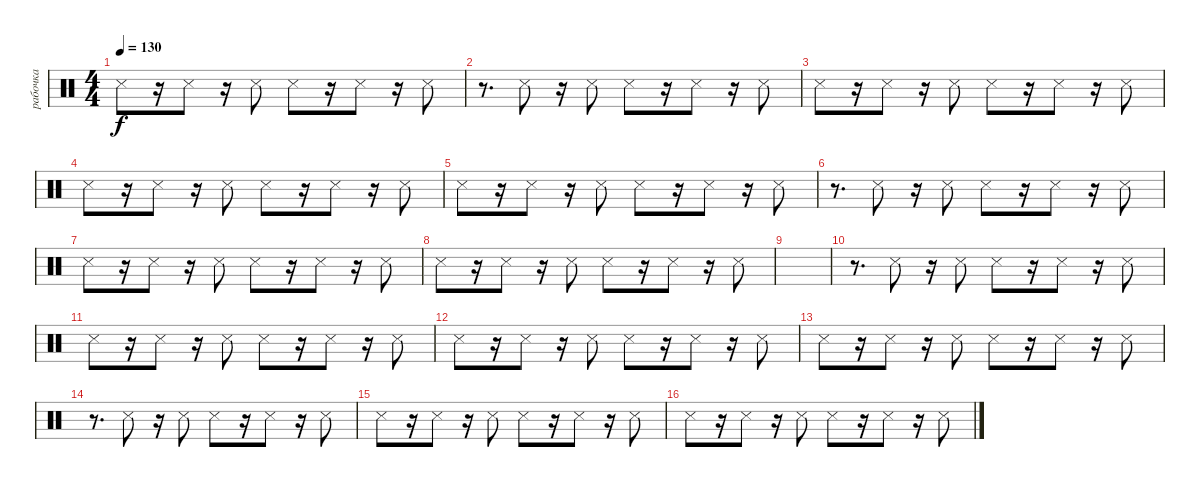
\track ("рабочка" "рабочка") {instrument percussion}
\staff {score}
\articulation defaults
\ts (4 4)
\tempo 130
\clef neutral
\ks c "Snare (side stick) 3".8{dy f}
r.16 "Snare (side stick) 3".8 r.16 "Snare (side stick) 3".8 "Snare (side stick) 3".8 r.16 "Snare (side stick) 3".8 r.16 "Snare (side stick) 3".8 |
r.8{d} "Snare (side stick) 3".8 r.16 "Snare (side stick) 3".8 "Snare (side stick) 3".8 r.16 "Snare (side stick) 3".8 r.16 "Snare (side stick) 3".8 |
"Snare (side stick) 3".8 r.16 "Snare (side stick) 3".8 r.16 "Snare (side stick) 3".8 "Snare (side stick) 3".8 r.16 "Snare (side stick) 3".8 r.16 "Snare (side stick) 3".8 |
"Snare (side stick) 3".8 r.16 "Snare (side stick) 3".8 r.16 "Snare (side stick) 3".8 "Snare (side stick) 3".8 r.16 "Snare (side stick) 3".8 r.16 "Snare (side stick) 3".8 |
"Snare (side stick) 3".8 r.16 "Snare (side stick) 3".8 r.16 "Snare (side stick) 3".8 "Snare (side stick) 3".8 r.16 "Snare (side stick) 3".8 r.16 "Snare (side stick) 3".8 |
r.8{d} "Snare (side stick) 3".8 r.16 "Snare (side stick) 3".8 "Snare (side stick) 3".8 r.16 "Snare (side stick) 3".8 r.16 "Snare (side stick) 3".8 |
"Snare (side stick) 3".8 r.16 "Snare (side stick) 3".8 r.16 "Snare (side stick) 3".8 "Snare (side stick) 3".8 r.16 "Snare (side stick) 3".8 r.16 "Snare (side stick) 3".8 |
"Snare (side stick) 3".8 r.16 "Snare (side stick) 3".8 r.16 "Snare (side stick) 3".8 "Snare (side stick) 3".8 r.16 "Snare (side stick) 3".8 r.16 "Snare (side stick) 3".8 |
|
r.8{d} "Snare (side stick) 3".8 r.16 "Snare (side stick) 3".8 "Snare (side stick) 3".8 r.16 "Snare (side stick) 3".8 r.16 "Snare (side stick) 3".8 |
"Snare (side stick) 3".8 r.16 "Snare (side stick) 3".8 r.16 "Snare (side stick) 3".8 "Snare (side stick) 3".8 r.16 "Snare (side stick) 3".8 r.16 "Snare (side stick) 3".8 |
"Snare (side stick) 3".8 r.16 "Snare (side stick) 3".8 r.16 "Snare (side stick) 3".8 "Snare (side stick) 3".8 r.16 "Snare (side stick) 3".8 r.16 "Snare (side stick) 3".8 |
"Snare (side stick) 3".8 r.16 "Snare (side stick) 3".8 r.16 "Snare (side stick) 3".8 "Snare (side stick) 3".8 r.16 "Snare (side stick) 3".8 r.16 "Snare (side stick) 3".8 |
r.8{d} "Snare (side stick) 3".8 r.16 "Snare (side stick) 3".8 "Snare (side stick) 3".8 r.16 "Snare (side stick) 3".8 r.16 "Snare (side stick) 3".8 |
"Snare (side stick) 3".8 r.16 "Snare (side stick) 3".8 r.16 "Snare (side stick) 3".8 "Snare (side stick) 3".8 r.16 "Snare (side stick) 3".8 r.16 "Snare (side stick) 3".8 |
"Snare (side stick) 3".8 r.16 "Snare (side stick) 3".8 r.16 "Snare (side stick) 3".8 "Snare (side stick) 3".8 r.16 "Snare (side stick) 3".8 r.16 "Snare (side stick) 3".8
